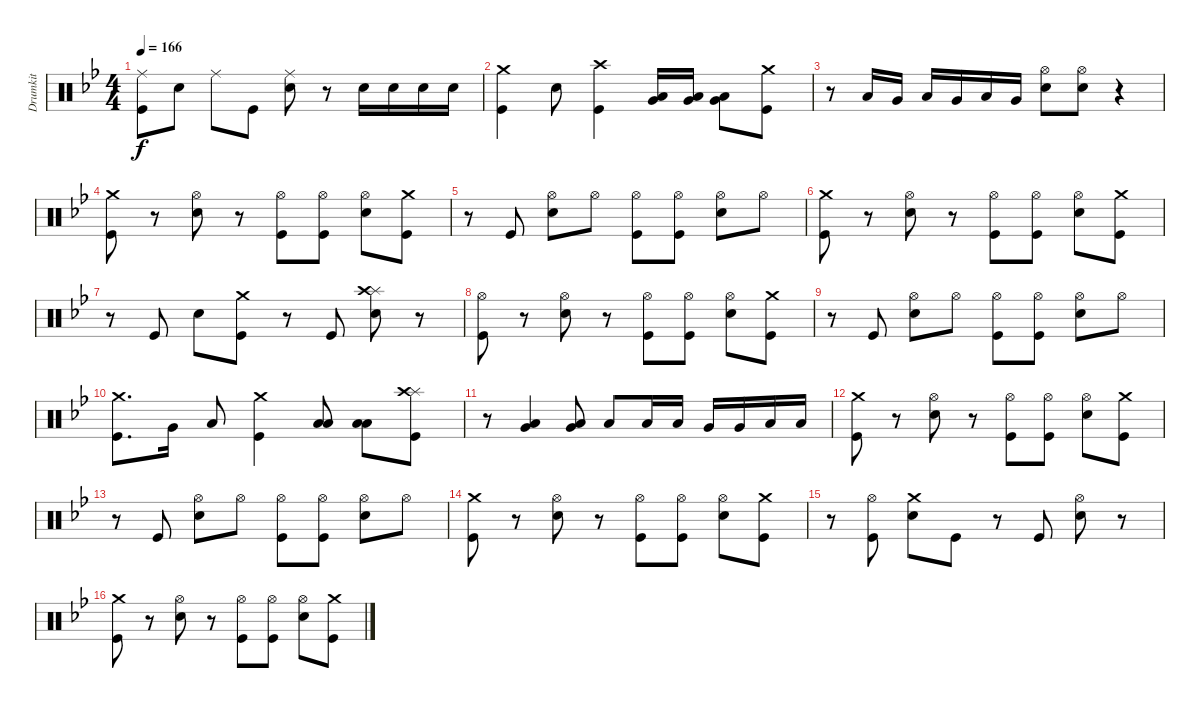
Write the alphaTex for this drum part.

\track ("Drumkit" "Drumkit") {instrument percussion}
\staff {score}
\articulation defaults
\ts (4 4)
\tempo 166
\clef neutral
\ks gminor
("Ride (middle)" "Kick (hit)").8{dy f} "Snare (hit) 2".8 "Ride (middle)".8 "Kick (hit)".8 ("Ride (middle)" "Snare (hit) 2").8 r.8 "Snare (hit) 2".16 "Snare (hit) 2".16 "Snare (hit) 2".16 "Snare (hit) 2".16 |
("Kick (hit)" "Crash medium (hit)").4 "Snare (hit) 2".8 ("Kick (hit)" "Crash high (hit)").4 ("Very Low Tom (hit)" "Low Floor Tom (hit)").16 ("Very Low Tom (hit)" "Low Floor Tom (hit)").16 ("Very Low Tom (hit)" "Low Floor Tom (hit)").8 ("Kick (hit)" "Crash medium (hit)").8 |
r.8 "Low Floor Tom (hit)".16 "Very Low Tom (hit)".16 "Low Floor Tom (hit)".16 "Very Low Tom (hit)".16 "Low Floor Tom (hit)".16 "Very Low Tom (hit)".16 ("Snare (hit) 2" "Hi-Hat (open)").8 ("Snare (hit) 2" "Hi-Hat (open)").8 r.4 |
("Kick (hit)" "Crash medium (hit)").8 r.8 ("Snare (hit) 2" "Hi-Hat (open)").8 r.8 ("Kick (hit)" "Hi-Hat (open)").8 ("Kick (hit)" "Hi-Hat (open)").8 ("Snare (hit) 2" "Hi-Hat (open)").8 ("Kick (hit)" "Crash medium (hit)").8 |
r.8 "Kick (hit)".8 ("Snare (hit) 2" "Hi-Hat (open)").8 "Hi-Hat (open)".8 ("Kick (hit)" "Hi-Hat (open)").8 ("Kick (hit)" "Hi-Hat (open)").8 ("Snare (hit) 2" "Hi-Hat (open)").8 "Hi-Hat (open)".8 |
("Kick (hit)" "Crash medium (hit)").8 r.8 ("Snare (hit) 2" "Hi-Hat (open)").8 r.8 ("Kick (hit)" "Hi-Hat (open)").8 ("Kick (hit)" "Hi-Hat (open)").8 ("Snare (hit) 2" "Hi-Hat (open)").8 ("Kick (hit)" "Crash medium (hit)").8 |
r.8 "Kick (hit)".8 "Snare (hit) 2".8 ("Kick (hit)" "Crash medium (hit)").8 r.8 "Kick (hit)".8 ("Snare (hit) 2" "Splash (hit)" "Crash high (hit)").8 r.8 |
("Kick (hit)" "Hi-Hat (open)").8 r.8 ("Snare (hit) 2" "Hi-Hat (open)").8 r.8 ("Kick (hit)" "Hi-Hat (open)").8 ("Kick (hit)" "Hi-Hat (open)").8 ("Snare (hit) 2" "Hi-Hat (open)").8 ("Kick (hit)" "Crash medium (hit)").8 |
r.8 "Kick (hit)".8 ("Snare (hit) 2" "Hi-Hat (open)").8 "Hi-Hat (open)".8 ("Kick (hit)" "Hi-Hat (open)").8 ("Kick (hit)" "Hi-Hat (open)").8 ("Snare (hit) 2" "Hi-Hat (open)").8 "Hi-Hat (open)".8 |
("Kick (hit)" "Crash medium (hit)").8{d} "Very Low Tom (hit)".16 "Low Floor Tom (hit)".8 ("Kick (hit)" "Crash medium (hit)").4 ("Low Floor Tom (hit)" "Low Tom (hit)").8 ("Low Floor Tom (hit)" "Low Tom (hit)").8 ("Kick (hit)" "Splash (hit)" "Crash high (hit)").8 |
r.8 ("Low Tom (hit)" "Very Low Tom (hit)").4 ("Low Floor Tom (hit)" "Very Low Tom (hit)").8 "Low Floor Tom (hit)".8 "Low Tom (hit)".16 "Low Tom (hit)".16 "Very Low Tom (hit)".16 "Very Low Tom (hit)".16 "Low Floor Tom (hit)".16 "Low Floor Tom (hit)".16 |
("Kick (hit)" "Crash medium (hit)").8 r.8 ("Snare (hit) 2" "Hi-Hat (open)").8 r.8 ("Kick (hit)" "Hi-Hat (open)").8 ("Kick (hit)" "Hi-Hat (open)").8 ("Snare (hit) 2" "Hi-Hat (open)").8 ("Kick (hit)" "Crash medium (hit)").8 |
r.8 "Kick (hit)".8 ("Snare (hit) 2" "Hi-Hat (open)").8 "Hi-Hat (open)".8 ("Kick (hit)" "Hi-Hat (open)").8 ("Kick (hit)" "Hi-Hat (open)").8 ("Snare (hit) 2" "Hi-Hat (open)").8 "Hi-Hat (open)".8 |
("Kick (hit)" "Crash medium (hit)").8 r.8 ("Snare (hit) 2" "Hi-Hat (open)").8 r.8 ("Kick (hit)" "Hi-Hat (open)").8 ("Kick (hit)" "Hi-Hat (open)").8 ("Snare (hit) 2" "Hi-Hat (open)").8 ("Kick (hit)" "Crash medium (hit)").8 |
r.8 ("Kick (hit)" "Hi-Hat (open)").8 ("Snare (hit) 2" "Crash medium (hit)").8 "Kick (hit)".8 r.8 "Kick (hit)".8 ("Snare (hit) 2" "Hi-Hat (open)").8 r.8 |
("Kick (hit)" "Crash medium (hit)").8 r.8 ("Snare (hit) 2" "Hi-Hat (open)").8 r.8 ("Kick (hit)" "Hi-Hat (open)").8 ("Kick (hit)" "Hi-Hat (open)").8 ("Snare (hit) 2" "Hi-Hat (open)").8 ("Kick (hit)" "Crash medium (hit)").8
